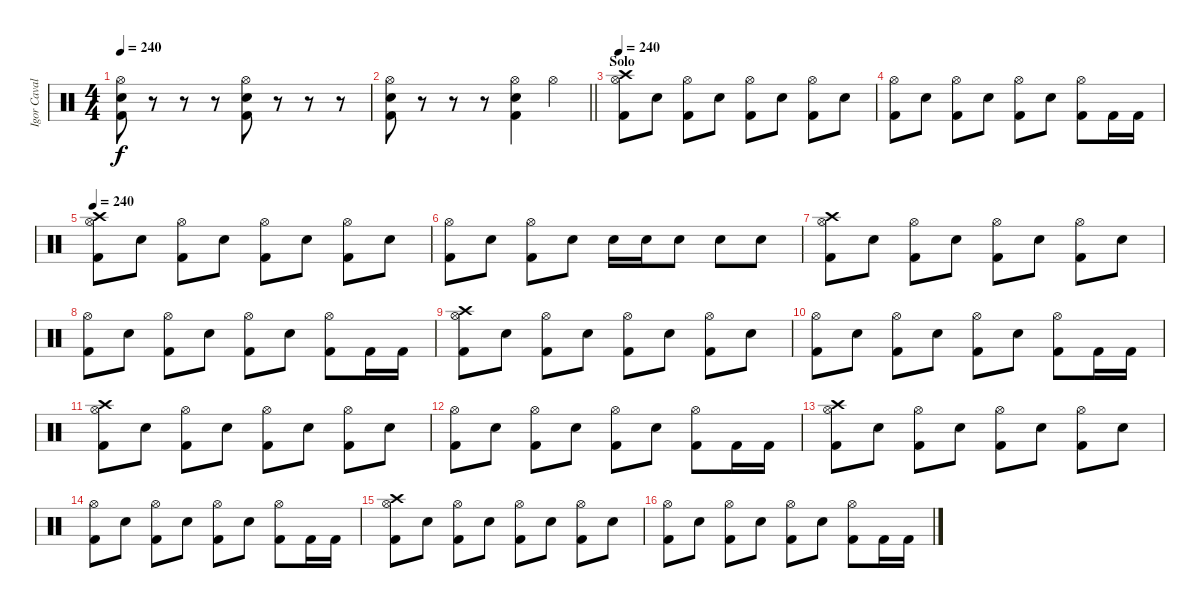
\track ("Igor Cavalera" "Igor Caval") {instrument percussion}
\staff {score}
\articulation defaults
\ts (4 4)
\tempo 240
\clef neutral
\ks c
("Hi-Hat (open)" "Electric Snare (hit)" "Kick (hit) 2").8{dy f} r.8 r.8 r.8 ("Hi-Hat (open)" "Electric Snare (hit)" "Kick (hit) 2").8 r.8 r.8 r.8 |
\barLineRight lightlight
("Hi-Hat (open)" "Electric Snare (hit)" "Kick (hit) 2").8 r.8 r.8 r.8 ("Hi-Hat (open)" "Electric Snare (hit)" "Kick (hit) 2").4 "Hi-Hat (open)".4 |
\section ("" "Solo")
\tempo 240
("Crash high (hit)" "Hi-Hat (open)" "Kick (hit) 2").8 "Electric Snare (hit)".8 ("Hi-Hat (open)" "Kick (hit) 2").8 "Electric Snare (hit)".8 ("Hi-Hat (open)" "Kick (hit) 2").8 "Electric Snare (hit)".8 ("Hi-Hat (open)" "Kick (hit) 2").8 "Electric Snare (hit)".8 |
("Hi-Hat (open)" "Kick (hit) 2").8 "Electric Snare (hit)".8 ("Hi-Hat (open)" "Kick (hit) 2").8 "Electric Snare (hit)".8 ("Hi-Hat (open)" "Kick (hit) 2").8 "Electric Snare (hit)".8 ("Hi-Hat (open)" "Kick (hit) 2").8 "Kick (hit) 2".16 "Kick (hit) 2".16 |
\tempo 240
("Crash high (hit)" "Hi-Hat (open)" "Kick (hit) 2").8 "Electric Snare (hit)".8 ("Hi-Hat (open)" "Kick (hit) 2").8 "Electric Snare (hit)".8 ("Hi-Hat (open)" "Kick (hit) 2").8 "Electric Snare (hit)".8 ("Hi-Hat (open)" "Kick (hit) 2").8 "Electric Snare (hit)".8 |
("Hi-Hat (open)" "Kick (hit) 2").8 "Electric Snare (hit)".8 ("Hi-Hat (open)" "Kick (hit) 2").8 "Electric Snare (hit)".8 "Snare (hit) 2".16 "Snare (hit) 2".16 "Snare (hit) 2".8 "Snare (hit) 2".8 "Snare (hit) 2".8 |
("Crash high (hit)" "Hi-Hat (open)" "Kick (hit) 2").8 "Electric Snare (hit)".8 ("Hi-Hat (open)" "Kick (hit) 2").8 "Electric Snare (hit)".8 ("Hi-Hat (open)" "Kick (hit) 2").8 "Electric Snare (hit)".8 ("Hi-Hat (open)" "Kick (hit) 2").8 "Electric Snare (hit)".8 |
("Hi-Hat (open)" "Kick (hit) 2").8 "Electric Snare (hit)".8 ("Hi-Hat (open)" "Kick (hit) 2").8 "Electric Snare (hit)".8 ("Hi-Hat (open)" "Kick (hit) 2").8 "Electric Snare (hit)".8 ("Hi-Hat (open)" "Kick (hit) 2").8 "Kick (hit) 2".16 "Kick (hit) 2".16 |
("Crash high (hit)" "Hi-Hat (open)" "Kick (hit) 2").8 "Electric Snare (hit)".8 ("Hi-Hat (open)" "Kick (hit) 2").8 "Electric Snare (hit)".8 ("Hi-Hat (open)" "Kick (hit) 2").8 "Electric Snare (hit)".8 ("Hi-Hat (open)" "Kick (hit) 2").8 "Electric Snare (hit)".8 |
("Hi-Hat (open)" "Kick (hit) 2").8 "Electric Snare (hit)".8 ("Hi-Hat (open)" "Kick (hit) 2").8 "Electric Snare (hit)".8 ("Hi-Hat (open)" "Kick (hit) 2").8 "Electric Snare (hit)".8 ("Hi-Hat (open)" "Kick (hit) 2").8 "Kick (hit) 2".16 "Kick (hit) 2".16 |
("Crash high (hit)" "Hi-Hat (open)" "Kick (hit) 2").8 "Electric Snare (hit)".8 ("Hi-Hat (open)" "Kick (hit) 2").8 "Electric Snare (hit)".8 ("Hi-Hat (open)" "Kick (hit) 2").8 "Electric Snare (hit)".8 ("Hi-Hat (open)" "Kick (hit) 2").8 "Electric Snare (hit)".8 |
("Hi-Hat (open)" "Kick (hit) 2").8 "Electric Snare (hit)".8 ("Hi-Hat (open)" "Kick (hit) 2").8 "Electric Snare (hit)".8 ("Hi-Hat (open)" "Kick (hit) 2").8 "Electric Snare (hit)".8 ("Hi-Hat (open)" "Kick (hit) 2").8 "Kick (hit) 2".16 "Kick (hit) 2".16 |
("Crash high (hit)" "Hi-Hat (open)" "Kick (hit) 2").8 "Electric Snare (hit)".8 ("Hi-Hat (open)" "Kick (hit) 2").8 "Electric Snare (hit)".8 ("Hi-Hat (open)" "Kick (hit) 2").8 "Electric Snare (hit)".8 ("Hi-Hat (open)" "Kick (hit) 2").8 "Electric Snare (hit)".8 |
("Hi-Hat (open)" "Kick (hit) 2").8 "Electric Snare (hit)".8 ("Hi-Hat (open)" "Kick (hit) 2").8 "Electric Snare (hit)".8 ("Hi-Hat (open)" "Kick (hit) 2").8 "Electric Snare (hit)".8 ("Hi-Hat (open)" "Kick (hit) 2").8 "Kick (hit) 2".16 "Kick (hit) 2".16 |
("Crash high (hit)" "Hi-Hat (open)" "Kick (hit) 2").8 "Electric Snare (hit)".8 ("Hi-Hat (open)" "Kick (hit) 2").8 "Electric Snare (hit)".8 ("Hi-Hat (open)" "Kick (hit) 2").8 "Electric Snare (hit)".8 ("Hi-Hat (open)" "Kick (hit) 2").8 "Electric Snare (hit)".8 |
("Hi-Hat (open)" "Kick (hit) 2").8 "Electric Snare (hit)".8 ("Hi-Hat (open)" "Kick (hit) 2").8 "Electric Snare (hit)".8 ("Hi-Hat (open)" "Kick (hit) 2").8 "Electric Snare (hit)".8 ("Hi-Hat (open)" "Kick (hit) 2").8 "Kick (hit) 2".16 "Kick (hit) 2".16
